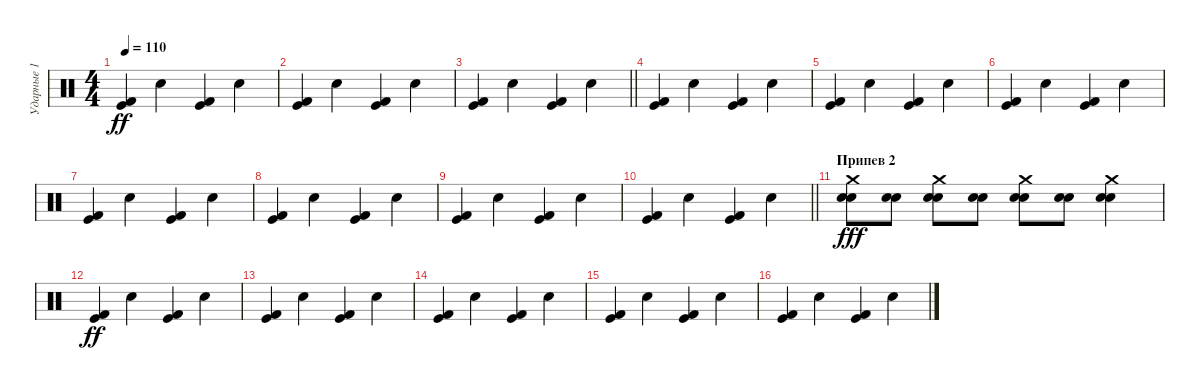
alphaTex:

\track ("Ударные 1" "Ударные 1") {instrument percussion}
\staff {score}
\articulation defaults
\ts (4 4)
\tempo 110
\clef neutral
\ks c
("Kick (hit) 2" "Kick (hit)").4{dy ff} "Snare (hit) 2".4 ("Kick (hit) 2" "Kick (hit)").4 "Snare (hit) 2".4 |
("Kick (hit) 2" "Kick (hit)").4 "Snare (hit) 2".4 ("Kick (hit) 2" "Kick (hit)").4 "Snare (hit) 2".4 |
\barLineRight lightlight
("Kick (hit) 2" "Kick (hit)").4 "Snare (hit) 2".4 ("Kick (hit) 2" "Kick (hit)").4 "Snare (hit) 2".4 |
("Kick (hit) 2" "Kick (hit)").4 "Snare (hit) 2".4 ("Kick (hit) 2" "Kick (hit)").4 "Snare (hit) 2".4 |
("Kick (hit) 2" "Kick (hit)").4 "Snare (hit) 2".4 ("Kick (hit) 2" "Kick (hit)").4 "Snare (hit) 2".4 |
("Kick (hit) 2" "Kick (hit)").4 "Snare (hit) 2".4 ("Kick (hit) 2" "Kick (hit)").4 "Snare (hit) 2".4 |
("Kick (hit) 2" "Kick (hit)").4 "Snare (hit) 2".4 ("Kick (hit) 2" "Kick (hit)").4 "Snare (hit) 2".4 |
("Kick (hit) 2" "Kick (hit)").4 "Snare (hit) 2".4 ("Kick (hit) 2" "Kick (hit)").4 "Snare (hit) 2".4 |
("Kick (hit) 2" "Kick (hit)").4 "Snare (hit) 2".4 ("Kick (hit) 2" "Kick (hit)").4 "Snare (hit) 2".4 |
\barLineRight lightlight
("Kick (hit) 2" "Kick (hit)").4 "Snare (hit) 2".4 ("Kick (hit) 2" "Kick (hit)").4 "Snare (hit) 2".4 |
\section ("" "Припев 2")
("Snare (hit) 2" "Electric Snare (hit)" "Crash medium (hit)").8{dy fff} ("Snare (hit) 2" "Electric Snare (hit)").8 ("Snare (hit) 2" "Electric Snare (hit)" "Crash medium (hit)").8 ("Snare (hit) 2" "Electric Snare (hit)").8 ("Snare (hit) 2" "Electric Snare (hit)" "Crash medium (hit)").8 ("Snare (hit) 2" "Electric Snare (hit)").8 ("Snare (hit) 2" "Electric Snare (hit)" "Crash medium (hit)").4 |
("Kick (hit) 2" "Kick (hit)").4{dy ff} "Snare (hit) 2".4 ("Kick (hit) 2" "Kick (hit)").4 "Snare (hit) 2".4 |
("Kick (hit) 2" "Kick (hit)").4 "Snare (hit) 2".4 ("Kick (hit) 2" "Kick (hit)").4 "Snare (hit) 2".4 |
("Kick (hit) 2" "Kick (hit)").4 "Snare (hit) 2".4 ("Kick (hit) 2" "Kick (hit)").4 "Snare (hit) 2".4 |
("Kick (hit) 2" "Kick (hit)").4 "Snare (hit) 2".4 ("Kick (hit) 2" "Kick (hit)").4 "Snare (hit) 2".4 |
("Kick (hit) 2" "Kick (hit)").4 "Snare (hit) 2".4 ("Kick (hit) 2" "Kick (hit)").4 "Snare (hit) 2".4
